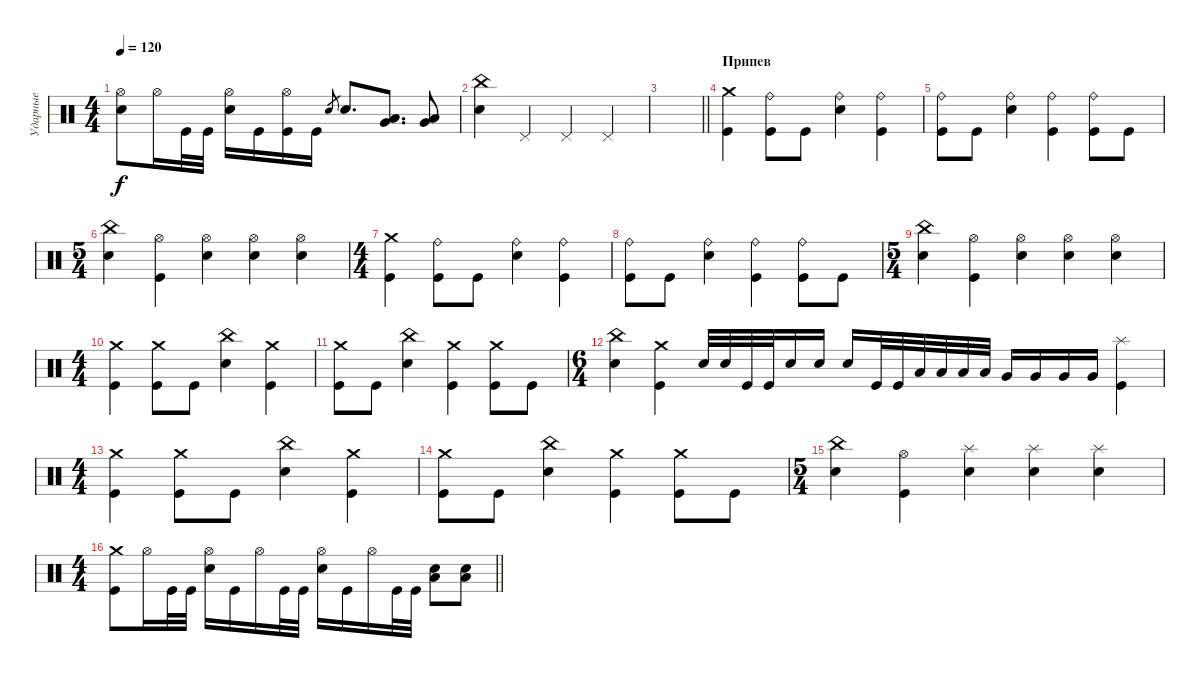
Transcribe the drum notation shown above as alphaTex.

\track ("Ударные" "Ударные") {instrument percussion}
\staff {score}
\articulation defaults
\ts (4 4)
\tempo 120
\clef neutral
\ks c
("Hi-Hat (open)" "Electric Snare (hit)").8{dy f} "Hi-Hat (open)".16 "Kick (hit)".32 "Kick (hit)".32 ("Hi-Hat (open)" "Electric Snare (hit)").16 "Kick (hit)".16 ("Hi-Hat (open)" "Kick (hit)").16 "Kick (hit)".16 "Electric Snare (hit)".8{gr} "Electric Snare (hit)".8{d} ("Very Low Tom (hit)" "Low Floor Tom (hit)").8{d} ("Very Low Tom (hit)" "Low Floor Tom (hit)").8 |
("China (hit)" "Electric Snare (hit)").4 "Pedal Hi-Hat (hit)".4 "Pedal Hi-Hat (hit)".4 "Pedal Hi-Hat (hit)".4 |
\barLineRight lightlight
|
\section ("" "Припев")
("Crash medium (hit)" "Kick (hit)").4 ("Ride (bell)" "Kick (hit)").8 "Kick (hit)".8 ("Ride (bell)" "Electric Snare (hit)").4 ("Ride (bell)" "Kick (hit)").4 |
("Ride (bell)" "Kick (hit)").8 "Kick (hit)".8 ("Ride (bell)" "Electric Snare (hit)").4 ("Ride (bell)" "Kick (hit)").4 ("Ride (bell)" "Kick (hit)").8 "Kick (hit)".8 |
\ts (5 4)
("China (hit)" "Electric Snare (hit)").4 ("Hi-Hat (open)" "Kick (hit)").4 ("Hi-Hat (open)" "Electric Snare (hit)").4 ("Hi-Hat (open)" "Electric Snare (hit)").4 ("Hi-Hat (open)" "Electric Snare (hit)").4 |
\ts (4 4)
("Crash medium (hit)" "Kick (hit)").4 ("Ride (bell)" "Kick (hit)").8 "Kick (hit)".8 ("Ride (bell)" "Electric Snare (hit)").4 ("Ride (bell)" "Kick (hit)").4 |
("Ride (bell)" "Kick (hit)").8 "Kick (hit)".8 ("Ride (bell)" "Electric Snare (hit)").4 ("Ride (bell)" "Kick (hit)").4 ("Ride (bell)" "Kick (hit)").8 "Kick (hit)".8 |
\ts (5 4)
("China (hit)" "Electric Snare (hit)").4 ("Hi-Hat (open)" "Kick (hit)").4 ("Hi-Hat (open)" "Electric Snare (hit)").4 ("Hi-Hat (open)" "Electric Snare (hit)").4 ("Hi-Hat (open)" "Electric Snare (hit)").4 |
\ts (4 4)
("Crash medium (hit)" "Kick (hit)").4 ("Crash medium (hit)" "Kick (hit)").8 "Kick (hit)".8 ("China (hit)" "Electric Snare (hit)").4 ("Crash medium (hit)" "Kick (hit)").4 |
("Crash medium (hit)" "Kick (hit)").8 "Kick (hit)".8 ("China (hit)" "Electric Snare (hit)").4 ("Crash medium (hit)" "Kick (hit)").4 ("Crash medium (hit)" "Kick (hit)").8 "Kick (hit)".8 |
\ts (6 4)
("China (hit)" "Electric Snare (hit)").4 ("Crash medium (hit)" "Kick (hit)").4 "Electric Snare (hit)".32 "Electric Snare (hit)".32 "Kick (hit)".32 "Kick (hit)".32 "Electric Snare (hit)".16 "Electric Snare (hit)".16 "Electric Snare (hit)".16 "Kick (hit)".32 "Kick (hit)".32 "Low Tom (hit)".32 "Low Tom (hit)".32 "Low Tom (hit)".32 "Low Tom (hit)".32 "Very Low Tom (hit)".16 "Very Low Tom (hit)".16 "Very Low Tom (hit)".16 "Very Low Tom (hit)".16 ("Splash (hit)" "Kick (hit)").4 |
\ts (4 4)
("Crash medium (hit)" "Kick (hit)").4 ("Crash medium (hit)" "Kick (hit)").8 "Kick (hit)".8 ("China (hit)" "Electric Snare (hit)").4 ("Crash medium (hit)" "Kick (hit)").4 |
("Crash medium (hit)" "Kick (hit)").8 "Kick (hit)".8 ("China (hit)" "Electric Snare (hit)").4 ("Crash medium (hit)" "Kick (hit)").4 ("Crash medium (hit)" "Kick (hit)").8 "Kick (hit)".8 |
\ts (5 4)
("China (hit)" "Electric Snare (hit)").4 ("Hi-Hat (open)" "Kick (hit)").4 ("Splash (hit)" "Electric Snare (hit)").4 ("Splash (hit)" "Electric Snare (hit)").4 ("Splash (hit)" "Electric Snare (hit)").4 |
\ts (4 4)
\barLineRight lightlight
("Crash medium (hit)" "Kick (hit)").8 "Hi-Hat (open)".16 "Kick (hit)".32 "Kick (hit)".32 ("Hi-Hat (open)" "Electric Snare (hit)").16 "Kick (hit)".16 "Hi-Hat (open)".16 "Kick (hit)".32 "Kick (hit)".32 ("Hi-Hat (open)" "Electric Snare (hit)").16 "Kick (hit)".16 "Hi-Hat (open)".16 "Kick (hit)".32 "Kick (hit)".32 ("Electric Snare (hit)" "Low Floor Tom (hit)").8 ("Electric Snare (hit)" "Low Floor Tom (hit)").8
